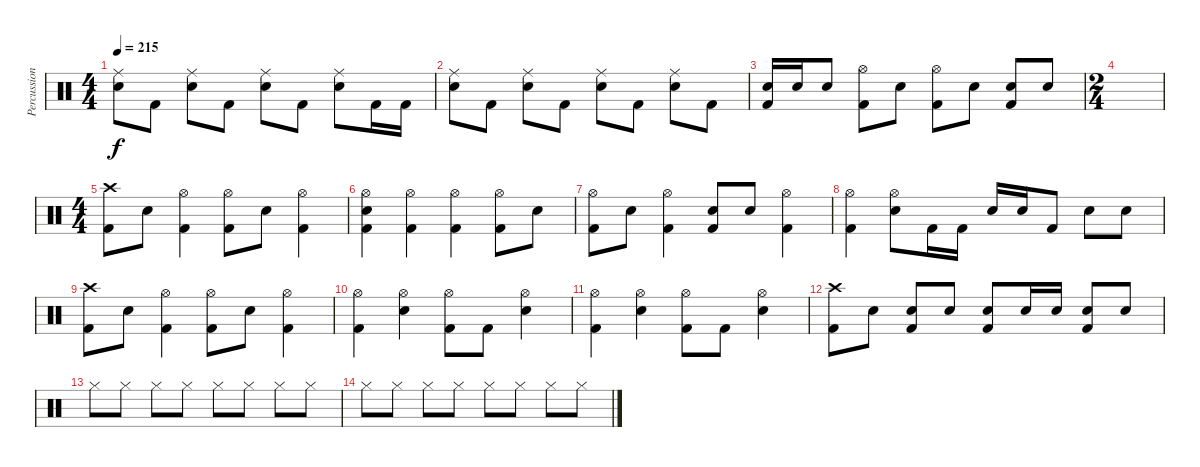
\track ("Percussion" "Percussion") {instrument percussion}
\staff {score}
\articulation defaults
\ts (4 4)
\tempo 215
\clef neutral
\ks aminor
("Ride (middle)" "Snare (hit) 2").8{dy f} "Kick (hit) 2".8 ("Ride (middle)" "Snare (hit) 2").8 "Kick (hit) 2".8 ("Ride (middle)" "Snare (hit) 2").8 "Kick (hit) 2".8 ("Ride (middle)" "Snare (hit) 2").8 "Kick (hit) 2".16 "Kick (hit) 2".16 |
("Ride (middle)" "Snare (hit) 2").8 "Kick (hit) 2".8 ("Ride (middle)" "Snare (hit) 2").8 "Kick (hit) 2".8 ("Ride (middle)" "Snare (hit) 2").8 "Kick (hit) 2".8 ("Ride (middle)" "Snare (hit) 2").8 "Kick (hit) 2".8 |
("Snare (hit) 2" "Kick (hit) 2").16 "Snare (hit) 2".16 "Snare (hit) 2".8 ("Hi-Hat (open)" "Kick (hit) 2").8 "Snare (hit) 2".8 ("Hi-Hat (open)" "Kick (hit) 2").8 "Snare (hit) 2".8 ("Snare (hit) 2" "Kick (hit) 2").8 "Snare (hit) 2".8 |
\ts (2 4)
|
\ts (4 4)
("Crash high (hit)" "Kick (hit) 2").8 "Snare (hit) 2".8 ("Hi-Hat (open)" "Kick (hit) 2").4 ("Hi-Hat (open)" "Kick (hit) 2").8 "Snare (hit) 2".8 ("Hi-Hat (open)" "Kick (hit) 2").4 |
("Hi-Hat (open)" "Snare (hit) 2" "Kick (hit) 2").4 ("Hi-Hat (open)" "Kick (hit) 2").4 ("Hi-Hat (open)" "Kick (hit) 2").4 ("Hi-Hat (open)" "Kick (hit) 2").8 "Snare (hit) 2".8 |
("Hi-Hat (open)" "Kick (hit) 2").8 "Snare (hit) 2".8 ("Hi-Hat (open)" "Kick (hit) 2").4 ("Snare (hit) 2" "Kick (hit) 2").8 "Snare (hit) 2".8 ("Hi-Hat (open)" "Kick (hit) 2").4 |
("Hi-Hat (open)" "Kick (hit) 2").4 ("Hi-Hat (open)" "Snare (hit) 2").8 "Kick (hit) 2".16 "Kick (hit) 2".16 "Snare (hit) 2".16 "Snare (hit) 2".16 "Kick (hit) 2".8 "Snare (hit) 2".8 "Snare (hit) 2".8 |
("Crash high (hit)" "Kick (hit) 2").8 "Snare (hit) 2".8 ("Hi-Hat (open)" "Kick (hit) 2").4 ("Hi-Hat (open)" "Kick (hit) 2").8 "Snare (hit) 2".8 ("Hi-Hat (open)" "Kick (hit) 2").4 |
("Hi-Hat (open)" "Kick (hit) 2").4 ("Snare (hit) 2" "Hi-Hat (open)").4 ("Hi-Hat (open)" "Kick (hit) 2").8 "Kick (hit) 2".8 ("Hi-Hat (open)" "Snare (hit) 2").4 |
("Hi-Hat (open)" "Kick (hit) 2").4 ("Snare (hit) 2" "Hi-Hat (open)").4 ("Hi-Hat (open)" "Kick (hit) 2").8 "Kick (hit) 2".8 ("Hi-Hat (open)" "Snare (hit) 2").4 |
("Crash high (hit)" "Kick (hit) 2").8 "Snare (hit) 2".8 ("Snare (hit) 2" "Kick (hit) 2").8 "Snare (hit) 2".8 ("Snare (hit) 2" "Kick (hit) 2").8 "Snare (hit) 2".16 "Snare (hit) 2".16 ("Snare (hit) 2" "Kick (hit) 2").8 "Snare (hit) 2".8 |
"Hi-Hat (closed)".8 "Hi-Hat (closed)".8 "Hi-Hat (closed)".8 "Hi-Hat (closed)".8 "Hi-Hat (closed)".8 "Hi-Hat (closed)".8 "Hi-Hat (closed)".8 "Hi-Hat (closed)".8 |
"Hi-Hat (closed)".8 "Hi-Hat (closed)".8 "Hi-Hat (closed)".8 "Hi-Hat (closed)".8 "Hi-Hat (closed)".8 "Hi-Hat (closed)".8 "Hi-Hat (closed)".8 "Hi-Hat (closed)".8
